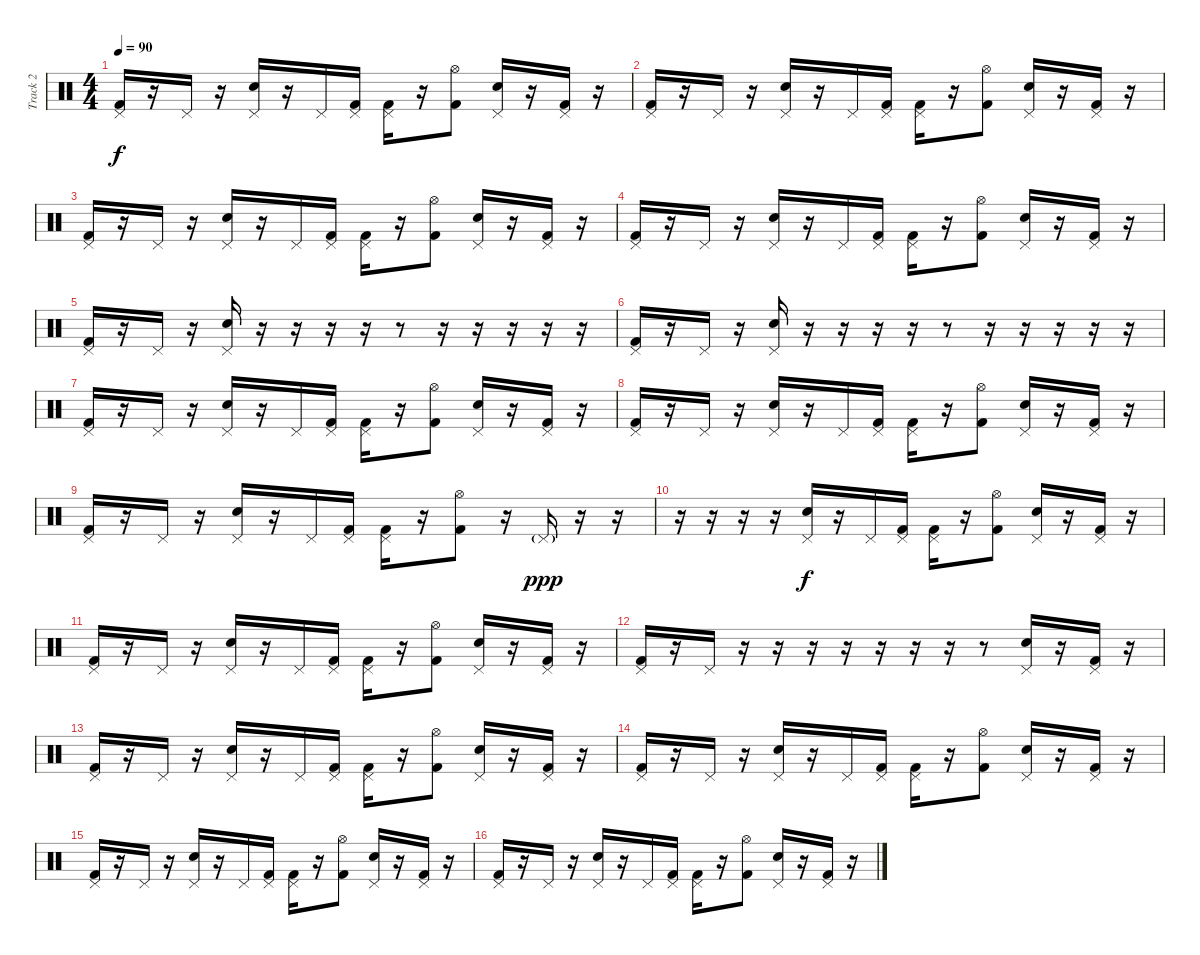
\track ("Track 2" "Track 2") {instrument percussion}
\staff {score}
\articulation defaults
\ts (4 4)
\tempo 90
\clef neutral
\ks c
("Pedal Hi-Hat (hit)" "Kick (hit) 2").16{dy f} r.16 "Pedal Hi-Hat (hit)".16 r.16 ("Pedal Hi-Hat (hit)" "Electric Snare (hit)").16 r.16 "Pedal Hi-Hat (hit)".16 ("Pedal Hi-Hat (hit)" "Kick (hit) 2").16 ("Pedal Hi-Hat (hit)" "Kick (hit) 2").16 r.16 ("Hi-Hat (open)" "Kick (hit) 2").8 ("Pedal Hi-Hat (hit)" "Electric Snare (hit)").16 r.16 ("Pedal Hi-Hat (hit)" "Kick (hit) 2").16 r.16 |
("Pedal Hi-Hat (hit)" "Kick (hit) 2").16 r.16 "Pedal Hi-Hat (hit)".16 r.16 ("Pedal Hi-Hat (hit)" "Electric Snare (hit)").16 r.16 "Pedal Hi-Hat (hit)".16 ("Pedal Hi-Hat (hit)" "Kick (hit) 2").16 ("Pedal Hi-Hat (hit)" "Kick (hit) 2").16 r.16 ("Hi-Hat (open)" "Kick (hit) 2").8 ("Pedal Hi-Hat (hit)" "Electric Snare (hit)").16 r.16 ("Pedal Hi-Hat (hit)" "Kick (hit) 2").16 r.16 |
("Pedal Hi-Hat (hit)" "Kick (hit) 2").16 r.16 "Pedal Hi-Hat (hit)".16 r.16 ("Pedal Hi-Hat (hit)" "Electric Snare (hit)").16 r.16 "Pedal Hi-Hat (hit)".16 ("Pedal Hi-Hat (hit)" "Kick (hit) 2").16 ("Pedal Hi-Hat (hit)" "Kick (hit) 2").16 r.16 ("Hi-Hat (open)" "Kick (hit) 2").8 ("Pedal Hi-Hat (hit)" "Electric Snare (hit)").16 r.16 ("Pedal Hi-Hat (hit)" "Kick (hit) 2").16 r.16 |
("Pedal Hi-Hat (hit)" "Kick (hit) 2").16 r.16 "Pedal Hi-Hat (hit)".16 r.16 ("Pedal Hi-Hat (hit)" "Electric Snare (hit)").16 r.16 "Pedal Hi-Hat (hit)".16 ("Pedal Hi-Hat (hit)" "Kick (hit) 2").16 ("Pedal Hi-Hat (hit)" "Kick (hit) 2").16 r.16 ("Hi-Hat (open)" "Kick (hit) 2").8 ("Pedal Hi-Hat (hit)" "Electric Snare (hit)").16 r.16 ("Pedal Hi-Hat (hit)" "Kick (hit) 2").16 r.16 |
("Pedal Hi-Hat (hit)" "Kick (hit) 2").16 r.16 "Pedal Hi-Hat (hit)".16 r.16 ("Pedal Hi-Hat (hit)" "Electric Snare (hit)").16 r.16 r.16 r.16 r.16 r.8 r.16 r.16 r.16 r.16 r.16 |
("Pedal Hi-Hat (hit)" "Kick (hit) 2").16 r.16 "Pedal Hi-Hat (hit)".16 r.16 ("Pedal Hi-Hat (hit)" "Electric Snare (hit)").16 r.16 r.16 r.16 r.16 r.8 r.16 r.16 r.16 r.16 r.16 |
("Pedal Hi-Hat (hit)" "Kick (hit) 2").16 r.16 "Pedal Hi-Hat (hit)".16 r.16 ("Pedal Hi-Hat (hit)" "Electric Snare (hit)").16 r.16 "Pedal Hi-Hat (hit)".16 ("Pedal Hi-Hat (hit)" "Kick (hit) 2").16 ("Pedal Hi-Hat (hit)" "Kick (hit) 2").16 r.16 ("Hi-Hat (open)" "Kick (hit) 2").8 ("Pedal Hi-Hat (hit)" "Electric Snare (hit)").16 r.16 ("Pedal Hi-Hat (hit)" "Kick (hit) 2").16 r.16 |
("Pedal Hi-Hat (hit)" "Kick (hit) 2").16 r.16 "Pedal Hi-Hat (hit)".16 r.16 ("Pedal Hi-Hat (hit)" "Electric Snare (hit)").16 r.16 "Pedal Hi-Hat (hit)".16 ("Pedal Hi-Hat (hit)" "Kick (hit) 2").16 ("Pedal Hi-Hat (hit)" "Kick (hit) 2").16 r.16 ("Hi-Hat (open)" "Kick (hit) 2").8 ("Pedal Hi-Hat (hit)" "Electric Snare (hit)").16 r.16 ("Pedal Hi-Hat (hit)" "Kick (hit) 2").16 r.16 |
("Pedal Hi-Hat (hit)" "Kick (hit) 2").16 r.16 "Pedal Hi-Hat (hit)".16 r.16 ("Pedal Hi-Hat (hit)" "Electric Snare (hit)").16 r.16 "Pedal Hi-Hat (hit)".16 ("Pedal Hi-Hat (hit)" "Kick (hit) 2").16 ("Pedal Hi-Hat (hit)" "Kick (hit) 2").16 r.16 ("Hi-Hat (open)" "Kick (hit) 2").8 r.16 "Pedal Hi-Hat (hit)"{g}.16{dy ppp} r.16 r.16 |
r.16 r.16 r.16 r.16 ("Pedal Hi-Hat (hit)" "Electric Snare (hit)").16{dy f} r.16 "Pedal Hi-Hat (hit)".16 ("Pedal Hi-Hat (hit)" "Kick (hit) 2").16 ("Pedal Hi-Hat (hit)" "Kick (hit) 2").16 r.16 ("Hi-Hat (open)" "Kick (hit) 2").8 ("Pedal Hi-Hat (hit)" "Electric Snare (hit)").16 r.16 ("Pedal Hi-Hat (hit)" "Kick (hit) 2").16 r.16 |
("Pedal Hi-Hat (hit)" "Kick (hit) 2").16 r.16 "Pedal Hi-Hat (hit)".16 r.16 ("Pedal Hi-Hat (hit)" "Electric Snare (hit)").16 r.16 "Pedal Hi-Hat (hit)".16 ("Pedal Hi-Hat (hit)" "Kick (hit) 2").16 ("Pedal Hi-Hat (hit)" "Kick (hit) 2").16 r.16 ("Hi-Hat (open)" "Kick (hit) 2").8 ("Pedal Hi-Hat (hit)" "Electric Snare (hit)").16 r.16 ("Pedal Hi-Hat (hit)" "Kick (hit) 2").16 r.16 |
("Pedal Hi-Hat (hit)" "Kick (hit) 2").16 r.16 "Pedal Hi-Hat (hit)".16 r.16 r.16 r.16 r.16 r.16 r.16 r.16 r.8 ("Pedal Hi-Hat (hit)" "Electric Snare (hit)").16 r.16 ("Pedal Hi-Hat (hit)" "Kick (hit) 2").16 r.16 |
("Pedal Hi-Hat (hit)" "Kick (hit) 2").16 r.16 "Pedal Hi-Hat (hit)".16 r.16 ("Pedal Hi-Hat (hit)" "Electric Snare (hit)").16 r.16 "Pedal Hi-Hat (hit)".16 ("Pedal Hi-Hat (hit)" "Kick (hit) 2").16 ("Pedal Hi-Hat (hit)" "Kick (hit) 2").16 r.16 ("Hi-Hat (open)" "Kick (hit) 2").8 ("Pedal Hi-Hat (hit)" "Electric Snare (hit)").16 r.16 ("Pedal Hi-Hat (hit)" "Kick (hit) 2").16 r.16 |
("Pedal Hi-Hat (hit)" "Kick (hit) 2").16 r.16 "Pedal Hi-Hat (hit)".16 r.16 ("Pedal Hi-Hat (hit)" "Electric Snare (hit)").16 r.16 "Pedal Hi-Hat (hit)".16 ("Pedal Hi-Hat (hit)" "Kick (hit) 2").16 ("Pedal Hi-Hat (hit)" "Kick (hit) 2").16 r.16 ("Hi-Hat (open)" "Kick (hit) 2").8 ("Pedal Hi-Hat (hit)" "Electric Snare (hit)").16 r.16 ("Pedal Hi-Hat (hit)" "Kick (hit) 2").16 r.16 |
("Pedal Hi-Hat (hit)" "Kick (hit) 2").16 r.16 "Pedal Hi-Hat (hit)".16 r.16 ("Pedal Hi-Hat (hit)" "Electric Snare (hit)").16 r.16 "Pedal Hi-Hat (hit)".16 ("Pedal Hi-Hat (hit)" "Kick (hit) 2").16 ("Pedal Hi-Hat (hit)" "Kick (hit) 2").16 r.16 ("Hi-Hat (open)" "Kick (hit) 2").8 ("Pedal Hi-Hat (hit)" "Electric Snare (hit)").16 r.16 ("Pedal Hi-Hat (hit)" "Kick (hit) 2").16 r.16 |
("Pedal Hi-Hat (hit)" "Kick (hit) 2").16 r.16 "Pedal Hi-Hat (hit)".16 r.16 ("Pedal Hi-Hat (hit)" "Electric Snare (hit)").16 r.16 "Pedal Hi-Hat (hit)".16 ("Pedal Hi-Hat (hit)" "Kick (hit) 2").16 ("Pedal Hi-Hat (hit)" "Kick (hit) 2").16 r.16 ("Hi-Hat (open)" "Kick (hit) 2").8 ("Pedal Hi-Hat (hit)" "Electric Snare (hit)").16 r.16 ("Pedal Hi-Hat (hit)" "Kick (hit) 2").16 r.16
